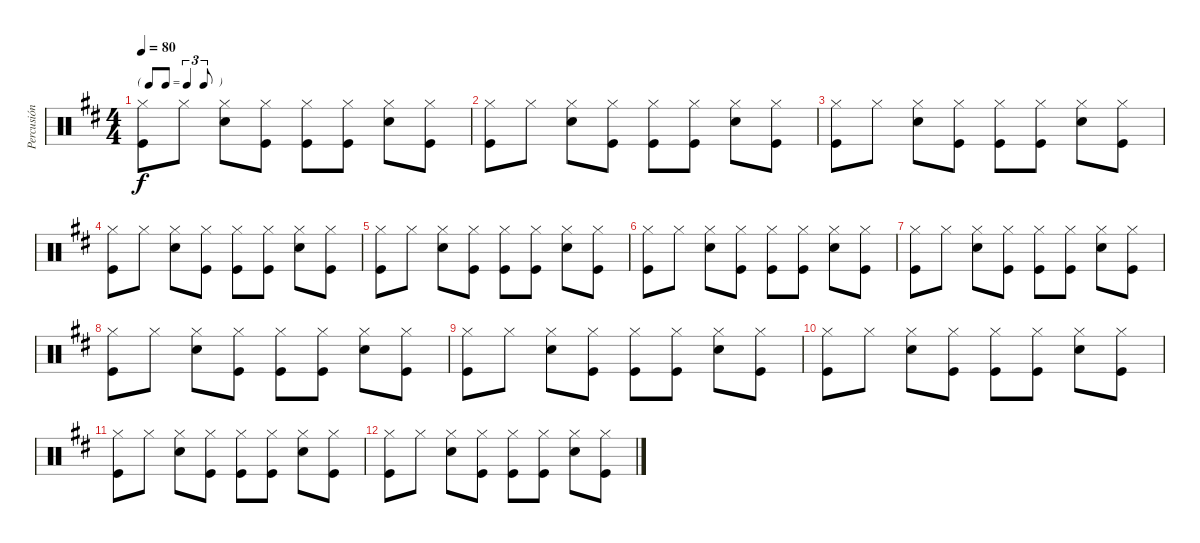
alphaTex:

\track ("Percusión" "Percusión") {instrument percussion}
\staff {score}
\articulation defaults
\ts (4 4)
\tf triplet8th
\tempo 80
\clef neutral
\ks d
("Hi-Hat (closed)" "Kick (hit)").8{dy f} "Hi-Hat (closed)".8 ("Hi-Hat (closed)" "Electric Snare (hit)").8 ("Hi-Hat (closed)" "Kick (hit)").8 ("Hi-Hat (closed)" "Kick (hit)").8 ("Hi-Hat (closed)" "Kick (hit)").8 ("Hi-Hat (closed)" "Electric Snare (hit)").8 ("Hi-Hat (closed)" "Kick (hit)").8 |
("Hi-Hat (closed)" "Kick (hit)").8 "Hi-Hat (closed)".8 ("Hi-Hat (closed)" "Electric Snare (hit)").8 ("Hi-Hat (closed)" "Kick (hit)").8 ("Hi-Hat (closed)" "Kick (hit)").8 ("Hi-Hat (closed)" "Kick (hit)").8 ("Hi-Hat (closed)" "Electric Snare (hit)").8 ("Hi-Hat (closed)" "Kick (hit)").8 |
("Hi-Hat (closed)" "Kick (hit)").8 "Hi-Hat (closed)".8 ("Hi-Hat (closed)" "Electric Snare (hit)").8 ("Hi-Hat (closed)" "Kick (hit)").8 ("Hi-Hat (closed)" "Kick (hit)").8 ("Hi-Hat (closed)" "Kick (hit)").8 ("Hi-Hat (closed)" "Electric Snare (hit)").8 ("Hi-Hat (closed)" "Kick (hit)").8 |
("Hi-Hat (closed)" "Kick (hit)").8 "Hi-Hat (closed)".8 ("Hi-Hat (closed)" "Electric Snare (hit)").8 ("Hi-Hat (closed)" "Kick (hit)").8 ("Hi-Hat (closed)" "Kick (hit)").8 ("Hi-Hat (closed)" "Kick (hit)").8 ("Hi-Hat (closed)" "Electric Snare (hit)").8 ("Hi-Hat (closed)" "Kick (hit)").8 |
("Hi-Hat (closed)" "Kick (hit)").8 "Hi-Hat (closed)".8 ("Hi-Hat (closed)" "Electric Snare (hit)").8 ("Hi-Hat (closed)" "Kick (hit)").8 ("Hi-Hat (closed)" "Kick (hit)").8 ("Hi-Hat (closed)" "Kick (hit)").8 ("Hi-Hat (closed)" "Electric Snare (hit)").8 ("Hi-Hat (closed)" "Kick (hit)").8 |
("Hi-Hat (closed)" "Kick (hit)").8 "Hi-Hat (closed)".8 ("Hi-Hat (closed)" "Electric Snare (hit)").8 ("Hi-Hat (closed)" "Kick (hit)").8 ("Hi-Hat (closed)" "Kick (hit)").8 ("Hi-Hat (closed)" "Kick (hit)").8 ("Hi-Hat (closed)" "Electric Snare (hit)").8 ("Hi-Hat (closed)" "Kick (hit)").8 |
("Hi-Hat (closed)" "Kick (hit)").8 "Hi-Hat (closed)".8 ("Hi-Hat (closed)" "Electric Snare (hit)").8 ("Hi-Hat (closed)" "Kick (hit)").8 ("Hi-Hat (closed)" "Kick (hit)").8 ("Hi-Hat (closed)" "Kick (hit)").8 ("Hi-Hat (closed)" "Electric Snare (hit)").8 ("Hi-Hat (closed)" "Kick (hit)").8 |
("Hi-Hat (closed)" "Kick (hit)").8 "Hi-Hat (closed)".8 ("Hi-Hat (closed)" "Electric Snare (hit)").8 ("Hi-Hat (closed)" "Kick (hit)").8 ("Hi-Hat (closed)" "Kick (hit)").8 ("Hi-Hat (closed)" "Kick (hit)").8 ("Hi-Hat (closed)" "Electric Snare (hit)").8 ("Hi-Hat (closed)" "Kick (hit)").8 |
("Hi-Hat (closed)" "Kick (hit)").8 "Hi-Hat (closed)".8 ("Hi-Hat (closed)" "Electric Snare (hit)").8 ("Hi-Hat (closed)" "Kick (hit)").8 ("Hi-Hat (closed)" "Kick (hit)").8 ("Hi-Hat (closed)" "Kick (hit)").8 ("Hi-Hat (closed)" "Electric Snare (hit)").8 ("Hi-Hat (closed)" "Kick (hit)").8 |
("Hi-Hat (closed)" "Kick (hit)").8 "Hi-Hat (closed)".8 ("Hi-Hat (closed)" "Electric Snare (hit)").8 ("Hi-Hat (closed)" "Kick (hit)").8 ("Hi-Hat (closed)" "Kick (hit)").8 ("Hi-Hat (closed)" "Kick (hit)").8 ("Hi-Hat (closed)" "Electric Snare (hit)").8 ("Hi-Hat (closed)" "Kick (hit)").8 |
("Hi-Hat (closed)" "Kick (hit)").8 "Hi-Hat (closed)".8 ("Hi-Hat (closed)" "Electric Snare (hit)").8 ("Hi-Hat (closed)" "Kick (hit)").8 ("Hi-Hat (closed)" "Kick (hit)").8 ("Hi-Hat (closed)" "Kick (hit)").8 ("Hi-Hat (closed)" "Electric Snare (hit)").8 ("Hi-Hat (closed)" "Kick (hit)").8 |
("Hi-Hat (closed)" "Kick (hit)").8 "Hi-Hat (closed)".8 ("Hi-Hat (closed)" "Electric Snare (hit)").8 ("Hi-Hat (closed)" "Kick (hit)").8 ("Hi-Hat (closed)" "Kick (hit)").8 ("Hi-Hat (closed)" "Kick (hit)").8 ("Hi-Hat (closed)" "Electric Snare (hit)").8 ("Hi-Hat (closed)" "Kick (hit)").8
